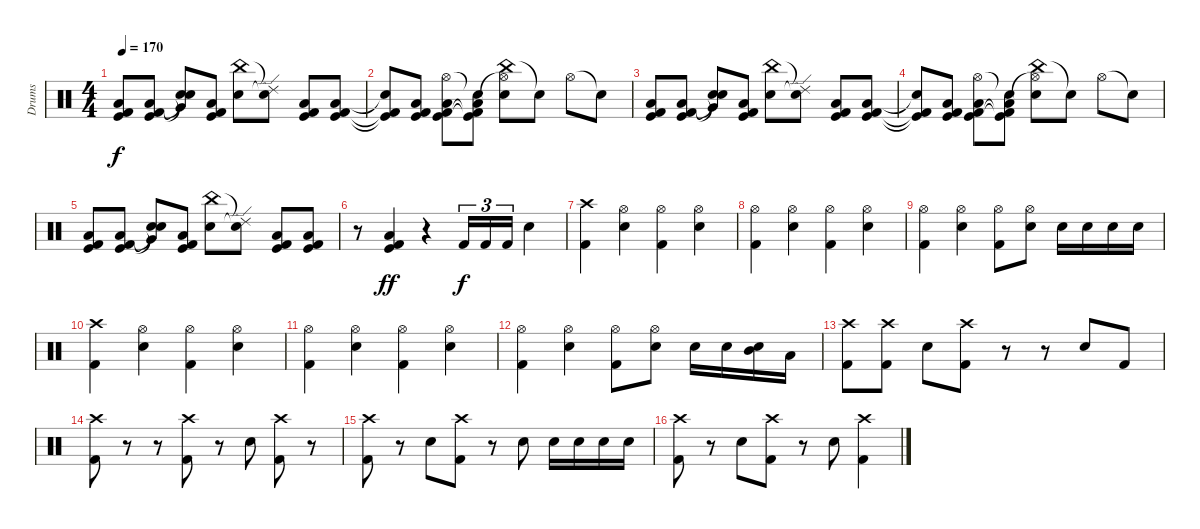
\track ("Drums" "Drums") {instrument percussion}
\staff {score}
\articulation defaults
\ts (4 4)
\tempo 170
\clef neutral
\ks c
("Low Floor Tom (hit)" "Kick (hit) 2" "Kick (hit)").8{dy f volume 15} ("Low Floor Tom (hit)" "Kick (hit) 2" "Kick (hit)").8 ("Very Low Tom (hit)"{t} "Snare (hit)"{t} "Snare (hit)"{t}).8 ("Low Floor Tom (hit)" "Kick (hit) 2" "Kick (hit)").8 ("China (hit)" "Electric Snare (hit)").8 ("Ride (edge) 2"{t} "Snare (hit)"{t}).8 ("Low Floor Tom (hit)" "Kick (hit) 2" "Kick (hit)").8 ("Low Floor Tom (hit)" "Kick (hit) 2" "Kick (hit)").8 |
("Electric Snare (hit)"{t} "Kick (hit) 2"{t} "Kick (hit)"{t}).8 ("Low Floor Tom (hit)" "Kick (hit) 2" "Kick (hit)").8 ("Hi-Hat (open)" "Low Floor Tom (hit)" "Kick (hit) 2" "Kick (hit)").8 ("Snare (hit)"{t} "Low Floor Tom (hit)" "Kick (hit) 2"{t} "Kick (hit)"{t}).8 ("China (hit)" "Hi-Hat (open)"{t} "Electric Snare (hit)").8 "Snare (hit)"{t}.8 "Hi-Hat (open)".8 "Snare (hit)"{t}.8 |
("Low Floor Tom (hit)" "Kick (hit) 2" "Kick (hit)").8{volume 15} ("Low Floor Tom (hit)" "Kick (hit) 2" "Kick (hit)").8 ("Very Low Tom (hit)"{t} "Snare (hit)"{t} "Snare (hit)"{t}).8 ("Low Floor Tom (hit)" "Kick (hit) 2" "Kick (hit)").8 ("China (hit)" "Electric Snare (hit)").8 ("Ride (edge) 2"{t} "Snare (hit)"{t}).8 ("Low Floor Tom (hit)" "Kick (hit) 2" "Kick (hit)").8 ("Low Floor Tom (hit)" "Kick (hit) 2" "Kick (hit)").8 |
("Electric Snare (hit)"{t} "Kick (hit) 2"{t} "Kick (hit)"{t}).8 ("Low Floor Tom (hit)" "Kick (hit) 2" "Kick (hit)").8 ("Hi-Hat (open)" "Low Floor Tom (hit)" "Kick (hit) 2" "Kick (hit)").8 ("Snare (hit)"{t} "Low Floor Tom (hit)" "Kick (hit) 2"{t} "Kick (hit)"{t}).8 ("China (hit)" "Hi-Hat (open)"{t} "Electric Snare (hit)").8 "Snare (hit)"{t}.8 "Hi-Hat (open)".8 "Snare (hit)"{t}.8 |
("Low Floor Tom (hit)" "Kick (hit) 2" "Kick (hit)").8{volume 15} ("Low Floor Tom (hit)" "Kick (hit) 2" "Kick (hit)").8 ("Very Low Tom (hit)"{t} "Snare (hit)"{t} "Snare (hit)"{t}).8 ("Low Floor Tom (hit)" "Kick (hit) 2" "Kick (hit)").8 ("China (hit)" "Electric Snare (hit)").8 ("Ride (edge) 2"{t} "Snare (hit)"{t}).8 ("Low Floor Tom (hit)" "Kick (hit) 2" "Kick (hit)").8 ("Low Floor Tom (hit)" "Kick (hit) 2" "Kick (hit)").8 |
r.8{volume 15} ("Low Floor Tom (hit)" "Kick (hit) 2" "Kick (hit)").4{dy ff} r.4 "Kick (hit) 2".16{tu (3 2) dy f} "Kick (hit) 2".16{tu (3 2)} "Kick (hit) 2".16{tu (3 2)} "Snare (hit) 2".4 |
("Crash high (hit)" "Kick (hit) 2").4 ("Hi-Hat (open)" "Snare (hit) 2").4 ("Hi-Hat (open)" "Kick (hit) 2").4 ("Hi-Hat (open)" "Snare (hit) 2").4 |
("Hi-Hat (open)" "Kick (hit) 2").4 ("Hi-Hat (open)" "Snare (hit) 2").4 ("Hi-Hat (open)" "Kick (hit) 2").4 ("Hi-Hat (open)" "Snare (hit) 2").4 |
("Hi-Hat (open)" "Kick (hit) 2").4 ("Hi-Hat (open)" "Snare (hit) 2").4 ("Hi-Hat (open)" "Kick (hit) 2").8 ("Hi-Hat (open)" "Snare (hit) 2").8 "Snare (hit) 2".16 "Snare (hit) 2".16 "Snare (hit) 2".16 "Snare (hit) 2".16 |
("Crash high (hit)" "Kick (hit) 2").4 ("Hi-Hat (open)" "Snare (hit) 2").4 ("Hi-Hat (open)" "Kick (hit) 2").4 ("Hi-Hat (open)" "Snare (hit) 2").4 |
("Hi-Hat (open)" "Kick (hit) 2").4 ("Hi-Hat (open)" "Snare (hit) 2").4 ("Hi-Hat (open)" "Kick (hit) 2").4 ("Hi-Hat (open)" "Snare (hit) 2").4 |
("Hi-Hat (open)" "Kick (hit) 2").4 ("Hi-Hat (open)" "Snare (hit) 2").4 ("Hi-Hat (open)" "Kick (hit) 2").8 ("Hi-Hat (open)" "Snare (hit) 2").8 "Snare (hit) 2".16 "Snare (hit) 2".16 ("Snare (hit) 2" "Mid Tom (hit)").16 "Low Tom (hit)".16 |
("Crash high (hit)" "Kick (hit) 2").8 ("Crash high (hit)" "Kick (hit) 2").8 "Snare (hit) 2".8 ("Crash high (hit)" "Kick (hit) 2").8 r.8 r.8 "Snare (hit) 2".8 "Kick (hit) 2".8 |
("Crash high (hit)" "Kick (hit) 2").8 r.8 r.8 ("Crash high (hit)" "Kick (hit) 2").8 r.8 "Snare (hit) 2".8 ("Crash high (hit)" "Kick (hit) 2").8 r.8 |
("Crash high (hit)" "Kick (hit) 2").8 r.8 "Snare (hit) 2".8 ("Crash high (hit)" "Kick (hit) 2").8 r.8 "Snare (hit) 2".8 "Snare (hit) 2".16 "Snare (hit) 2".16 "Snare (hit) 2".16 "Snare (hit) 2".16 |
("Crash high (hit)" "Kick (hit) 2").8 r.8 "Snare (hit) 2".8 ("Crash high (hit)" "Kick (hit) 2").8 r.8 "Snare (hit) 2".8 ("Crash high (hit)" "Kick (hit) 2").4
